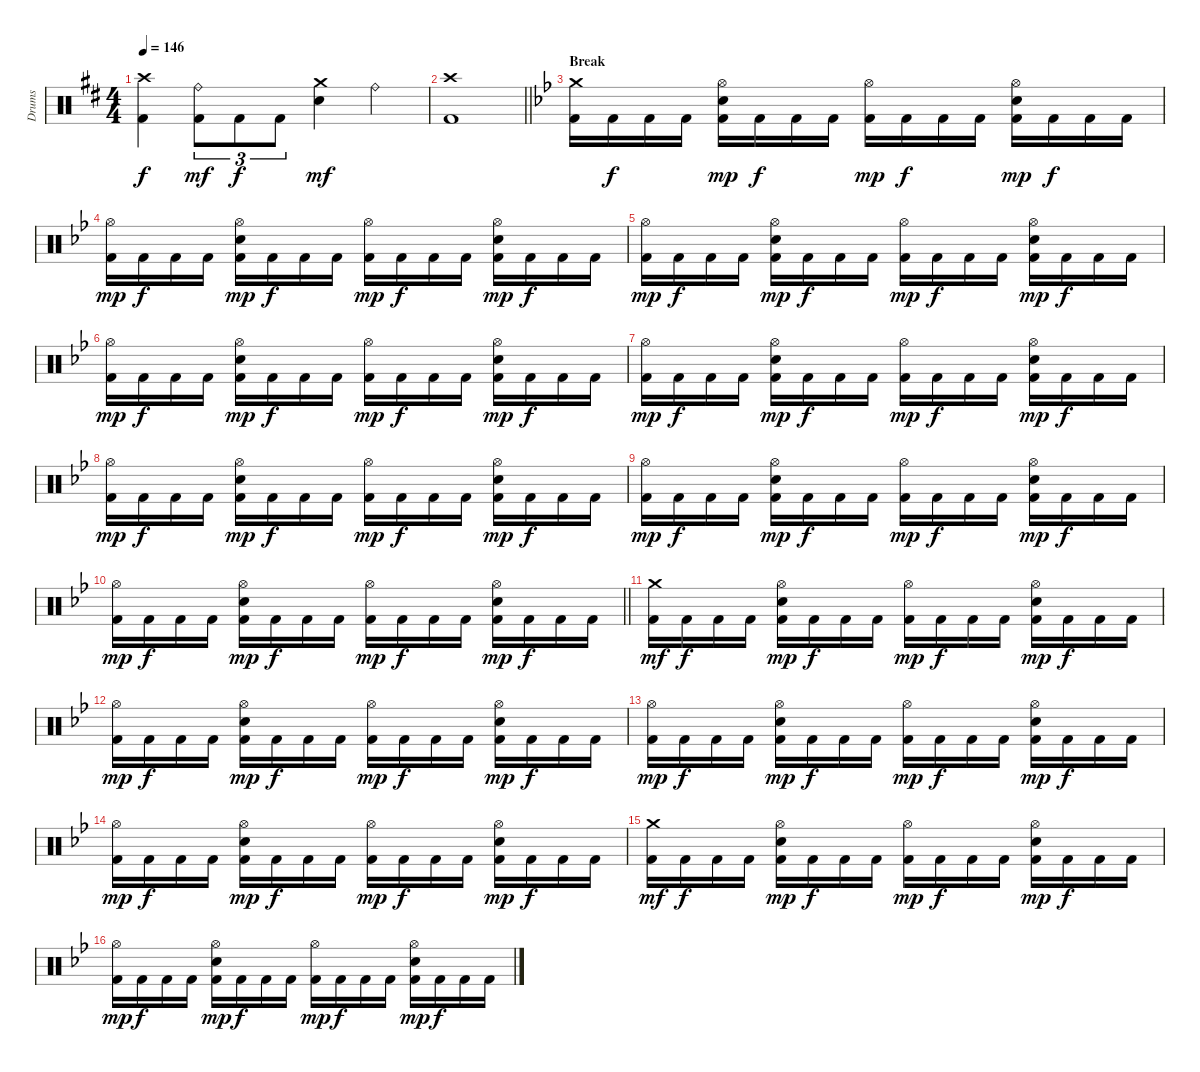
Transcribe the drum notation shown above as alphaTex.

\track ("Drums" "Drums") {instrument percussion}
\staff {score}
\articulation defaults
\ts (4 4)
\tempo 146
\clef neutral
\ks bminor
("Crash high (hit)" "Kick (hit) 2").4{dy f} ("Ride (bell)" "Kick (hit) 2").8{tu (3 2) dy mf} "Kick (hit) 2".8{tu (3 2) dy f} "Kick (hit) 2".8{tu (3 2)} ("Crash medium (hit)" "Electric Snare (hit)").4{dy mf} "Ride (bell)".4 |
\barLineRight lightlight
("Crash high (hit)" "Kick (hit) 2").1 |
\section ("" "Break")
\ks gminor
("Crash medium (hit)" "Kick (hit) 2").16 "Kick (hit) 2".16{dy f} "Kick (hit) 2".16 "Kick (hit) 2".16 ("Hi-Hat (open)" "Electric Snare (hit)" "Kick (hit) 2").16{dy mp} "Kick (hit) 2".16{dy f} "Kick (hit) 2".16 "Kick (hit) 2".16 ("Hi-Hat (open)" "Kick (hit) 2").16{dy mp} "Kick (hit) 2".16{dy f} "Kick (hit) 2".16 "Kick (hit) 2".16 ("Hi-Hat (open)" "Electric Snare (hit)" "Kick (hit) 2").16{dy mp} "Kick (hit) 2".16{dy f} "Kick (hit) 2".16 "Kick (hit) 2".16 |
("Hi-Hat (open)" "Kick (hit) 2").16{dy mp} "Kick (hit) 2".16{dy f} "Kick (hit) 2".16 "Kick (hit) 2".16 ("Hi-Hat (open)" "Electric Snare (hit)" "Kick (hit) 2").16{dy mp} "Kick (hit) 2".16{dy f} "Kick (hit) 2".16 "Kick (hit) 2".16 ("Hi-Hat (open)" "Kick (hit) 2").16{dy mp} "Kick (hit) 2".16{dy f} "Kick (hit) 2".16 "Kick (hit) 2".16 ("Hi-Hat (open)" "Electric Snare (hit)" "Kick (hit) 2").16{dy mp} "Kick (hit) 2".16{dy f} "Kick (hit) 2".16 "Kick (hit) 2".16 |
("Hi-Hat (open)" "Kick (hit) 2").16{dy mp} "Kick (hit) 2".16{dy f} "Kick (hit) 2".16 "Kick (hit) 2".16 ("Hi-Hat (open)" "Electric Snare (hit)" "Kick (hit) 2").16{dy mp} "Kick (hit) 2".16{dy f} "Kick (hit) 2".16 "Kick (hit) 2".16 ("Hi-Hat (open)" "Kick (hit) 2").16{dy mp} "Kick (hit) 2".16{dy f} "Kick (hit) 2".16 "Kick (hit) 2".16 ("Hi-Hat (open)" "Electric Snare (hit)" "Kick (hit) 2").16{dy mp} "Kick (hit) 2".16{dy f} "Kick (hit) 2".16 "Kick (hit) 2".16 |
("Hi-Hat (open)" "Kick (hit) 2").16{dy mp} "Kick (hit) 2".16{dy f} "Kick (hit) 2".16 "Kick (hit) 2".16 ("Hi-Hat (open)" "Electric Snare (hit)" "Kick (hit) 2").16{dy mp} "Kick (hit) 2".16{dy f} "Kick (hit) 2".16 "Kick (hit) 2".16 ("Hi-Hat (open)" "Kick (hit) 2").16{dy mp} "Kick (hit) 2".16{dy f} "Kick (hit) 2".16 "Kick (hit) 2".16 ("Hi-Hat (open)" "Electric Snare (hit)" "Kick (hit) 2").16{dy mp} "Kick (hit) 2".16{dy f} "Kick (hit) 2".16 "Kick (hit) 2".16 |
("Hi-Hat (open)" "Kick (hit) 2").16{dy mp} "Kick (hit) 2".16{dy f} "Kick (hit) 2".16 "Kick (hit) 2".16 ("Hi-Hat (open)" "Electric Snare (hit)" "Kick (hit) 2").16{dy mp} "Kick (hit) 2".16{dy f} "Kick (hit) 2".16 "Kick (hit) 2".16 ("Hi-Hat (open)" "Kick (hit) 2").16{dy mp} "Kick (hit) 2".16{dy f} "Kick (hit) 2".16 "Kick (hit) 2".16 ("Hi-Hat (open)" "Electric Snare (hit)" "Kick (hit) 2").16{dy mp} "Kick (hit) 2".16{dy f} "Kick (hit) 2".16 "Kick (hit) 2".16 |
("Hi-Hat (open)" "Kick (hit) 2").16{dy mp} "Kick (hit) 2".16{dy f} "Kick (hit) 2".16 "Kick (hit) 2".16 ("Hi-Hat (open)" "Electric Snare (hit)" "Kick (hit) 2").16{dy mp} "Kick (hit) 2".16{dy f} "Kick (hit) 2".16 "Kick (hit) 2".16 ("Hi-Hat (open)" "Kick (hit) 2").16{dy mp} "Kick (hit) 2".16{dy f} "Kick (hit) 2".16 "Kick (hit) 2".16 ("Hi-Hat (open)" "Electric Snare (hit)" "Kick (hit) 2").16{dy mp} "Kick (hit) 2".16{dy f} "Kick (hit) 2".16 "Kick (hit) 2".16 |
("Hi-Hat (open)" "Kick (hit) 2").16{dy mp} "Kick (hit) 2".16{dy f} "Kick (hit) 2".16 "Kick (hit) 2".16 ("Hi-Hat (open)" "Electric Snare (hit)" "Kick (hit) 2").16{dy mp} "Kick (hit) 2".16{dy f} "Kick (hit) 2".16 "Kick (hit) 2".16 ("Hi-Hat (open)" "Kick (hit) 2").16{dy mp} "Kick (hit) 2".16{dy f} "Kick (hit) 2".16 "Kick (hit) 2".16 ("Hi-Hat (open)" "Electric Snare (hit)" "Kick (hit) 2").16{dy mp} "Kick (hit) 2".16{dy f} "Kick (hit) 2".16 "Kick (hit) 2".16 |
\barLineRight lightlight
("Hi-Hat (open)" "Kick (hit) 2").16{dy mp} "Kick (hit) 2".16{dy f} "Kick (hit) 2".16 "Kick (hit) 2".16 ("Hi-Hat (open)" "Electric Snare (hit)" "Kick (hit) 2").16{dy mp} "Kick (hit) 2".16{dy f} "Kick (hit) 2".16 "Kick (hit) 2".16 ("Hi-Hat (open)" "Kick (hit) 2").16{dy mp} "Kick (hit) 2".16{dy f} "Kick (hit) 2".16 "Kick (hit) 2".16 ("Hi-Hat (open)" "Electric Snare (hit)" "Kick (hit) 2").16{dy mp} "Kick (hit) 2".16{dy f} "Kick (hit) 2".16 "Kick (hit) 2".16 |
\section ("" "")
("Crash medium (hit)" "Kick (hit) 2").16{dy mf} "Kick (hit) 2".16{dy f} "Kick (hit) 2".16 "Kick (hit) 2".16 ("Hi-Hat (open)" "Electric Snare (hit)" "Kick (hit) 2").16{dy mp} "Kick (hit) 2".16{dy f} "Kick (hit) 2".16 "Kick (hit) 2".16 ("Hi-Hat (open)" "Kick (hit) 2").16{dy mp} "Kick (hit) 2".16{dy f} "Kick (hit) 2".16 "Kick (hit) 2".16 ("Hi-Hat (open)" "Electric Snare (hit)" "Kick (hit) 2").16{dy mp} "Kick (hit) 2".16{dy f} "Kick (hit) 2".16 "Kick (hit) 2".16 |
("Hi-Hat (open)" "Kick (hit) 2").16{dy mp} "Kick (hit) 2".16{dy f} "Kick (hit) 2".16 "Kick (hit) 2".16 ("Hi-Hat (open)" "Electric Snare (hit)" "Kick (hit) 2").16{dy mp} "Kick (hit) 2".16{dy f} "Kick (hit) 2".16 "Kick (hit) 2".16 ("Hi-Hat (open)" "Kick (hit) 2").16{dy mp} "Kick (hit) 2".16{dy f} "Kick (hit) 2".16 "Kick (hit) 2".16 ("Hi-Hat (open)" "Electric Snare (hit)" "Kick (hit) 2").16{dy mp} "Kick (hit) 2".16{dy f} "Kick (hit) 2".16 "Kick (hit) 2".16 |
("Hi-Hat (open)" "Kick (hit) 2").16{dy mp} "Kick (hit) 2".16{dy f} "Kick (hit) 2".16 "Kick (hit) 2".16 ("Hi-Hat (open)" "Electric Snare (hit)" "Kick (hit) 2").16{dy mp} "Kick (hit) 2".16{dy f} "Kick (hit) 2".16 "Kick (hit) 2".16 ("Hi-Hat (open)" "Kick (hit) 2").16{dy mp} "Kick (hit) 2".16{dy f} "Kick (hit) 2".16 "Kick (hit) 2".16 ("Hi-Hat (open)" "Electric Snare (hit)" "Kick (hit) 2").16{dy mp} "Kick (hit) 2".16{dy f} "Kick (hit) 2".16 "Kick (hit) 2".16 |
("Hi-Hat (open)" "Kick (hit) 2").16{dy mp} "Kick (hit) 2".16{dy f} "Kick (hit) 2".16 "Kick (hit) 2".16 ("Hi-Hat (open)" "Electric Snare (hit)" "Kick (hit) 2").16{dy mp} "Kick (hit) 2".16{dy f} "Kick (hit) 2".16 "Kick (hit) 2".16 ("Hi-Hat (open)" "Kick (hit) 2").16{dy mp} "Kick (hit) 2".16{dy f} "Kick (hit) 2".16 "Kick (hit) 2".16 ("Hi-Hat (open)" "Electric Snare (hit)" "Kick (hit) 2").16{dy mp} "Kick (hit) 2".16{dy f} "Kick (hit) 2".16 "Kick (hit) 2".16 |
("Crash medium (hit)" "Kick (hit) 2").16{dy mf} "Kick (hit) 2".16{dy f} "Kick (hit) 2".16 "Kick (hit) 2".16 ("Hi-Hat (open)" "Electric Snare (hit)" "Kick (hit) 2").16{dy mp} "Kick (hit) 2".16{dy f} "Kick (hit) 2".16 "Kick (hit) 2".16 ("Hi-Hat (open)" "Kick (hit) 2").16{dy mp} "Kick (hit) 2".16{dy f} "Kick (hit) 2".16 "Kick (hit) 2".16 ("Hi-Hat (open)" "Electric Snare (hit)" "Kick (hit) 2").16{dy mp} "Kick (hit) 2".16{dy f} "Kick (hit) 2".16 "Kick (hit) 2".16 |
("Hi-Hat (open)" "Kick (hit) 2").16{dy mp} "Kick (hit) 2".16{dy f} "Kick (hit) 2".16 "Kick (hit) 2".16 ("Hi-Hat (open)" "Electric Snare (hit)" "Kick (hit) 2").16{dy mp} "Kick (hit) 2".16{dy f} "Kick (hit) 2".16 "Kick (hit) 2".16 ("Hi-Hat (open)" "Kick (hit) 2").16{dy mp} "Kick (hit) 2".16{dy f} "Kick (hit) 2".16 "Kick (hit) 2".16 ("Hi-Hat (open)" "Electric Snare (hit)" "Kick (hit) 2").16{dy mp} "Kick (hit) 2".16{dy f} "Kick (hit) 2".16 "Kick (hit) 2".16
